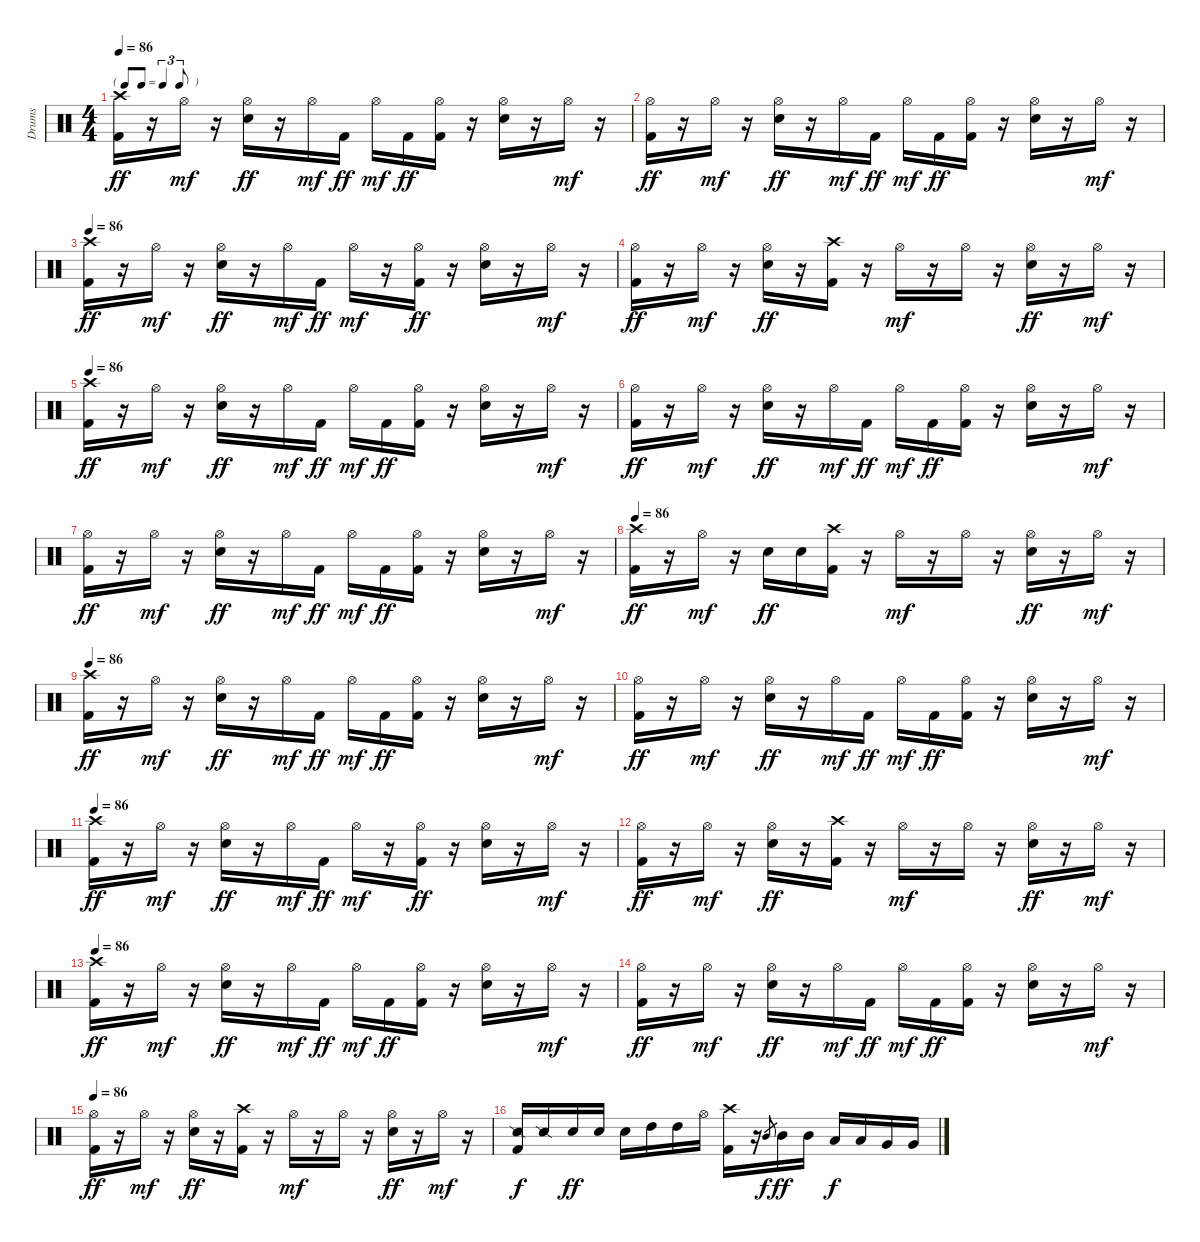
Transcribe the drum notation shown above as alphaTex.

\track ("Drums" "Drums") {instrument percussion}
\staff {score}
\articulation defaults
\ts (4 4)
\tf triplet8th
\tempo 86
\clef neutral
\ks c
("Crash high (hit)" "Kick (hit) 2").16{dy ff} r.16 "Hi-Hat (open)".16{dy mf} r.16 ("Hi-Hat (open)" "Electric Snare (hit)").16{dy ff} r.16 "Hi-Hat (open)".16{dy mf} "Kick (hit) 2".16{dy ff} "Hi-Hat (open)".16{dy mf} "Kick (hit) 2".16{dy ff} ("Hi-Hat (open)" "Kick (hit) 2").16 r.16 ("Hi-Hat (open)" "Electric Snare (hit)").16 r.16 "Hi-Hat (open)".16{dy mf} r.16 |
("Hi-Hat (open)" "Kick (hit) 2").16{dy ff} r.16 "Hi-Hat (open)".16{dy mf} r.16 ("Hi-Hat (open)" "Electric Snare (hit)").16{dy ff} r.16 "Hi-Hat (open)".16{dy mf} "Kick (hit) 2".16{dy ff} "Hi-Hat (open)".16{dy mf} "Kick (hit) 2".16{dy ff} ("Hi-Hat (open)" "Kick (hit) 2").16 r.16 ("Hi-Hat (open)" "Electric Snare (hit)").16 r.16 "Hi-Hat (open)".16{dy mf} r.16 |
\tempo 86
("Crash high (hit)" "Kick (hit) 2").16{dy ff} r.16 "Hi-Hat (open)".16{dy mf} r.16 ("Hi-Hat (open)" "Electric Snare (hit)").16{dy ff} r.16 "Hi-Hat (open)".16{dy mf} "Kick (hit) 2".16{dy ff} "Hi-Hat (open)".16{dy mf} r.16 ("Hi-Hat (open)" "Kick (hit) 2").16{dy ff} r.16 ("Hi-Hat (open)" "Electric Snare (hit)").16 r.16 "Hi-Hat (open)".16{dy mf} r.16 |
("Hi-Hat (open)" "Kick (hit) 2").16{dy ff} r.16 "Hi-Hat (open)".16{dy mf} r.16 ("Hi-Hat (open)" "Electric Snare (hit)").16{dy ff} r.16 ("Crash high (hit)" "Kick (hit) 2").16 r.16 "Hi-Hat (open)".16{dy mf} r.16 "Hi-Hat (open)".16 r.16 ("Hi-Hat (open)" "Electric Snare (hit)").16{dy ff} r.16 "Hi-Hat (open)".16{dy mf} r.16 |
\tempo 86
("Crash high (hit)" "Kick (hit) 2").16{dy ff} r.16 "Hi-Hat (open)".16{dy mf} r.16 ("Hi-Hat (open)" "Electric Snare (hit)").16{dy ff} r.16 "Hi-Hat (open)".16{dy mf} "Kick (hit) 2".16{dy ff} "Hi-Hat (open)".16{dy mf} "Kick (hit) 2".16{dy ff} ("Hi-Hat (open)" "Kick (hit) 2").16 r.16 ("Hi-Hat (open)" "Electric Snare (hit)").16 r.16 "Hi-Hat (open)".16{dy mf} r.16 |
("Hi-Hat (open)" "Kick (hit) 2").16{dy ff} r.16 "Hi-Hat (open)".16{dy mf} r.16 ("Hi-Hat (open)" "Electric Snare (hit)").16{dy ff} r.16 "Hi-Hat (open)".16{dy mf} "Kick (hit) 2".16{dy ff} "Hi-Hat (open)".16{dy mf} "Kick (hit) 2".16{dy ff} ("Hi-Hat (open)" "Kick (hit) 2").16 r.16 ("Hi-Hat (open)" "Electric Snare (hit)").16 r.16 "Hi-Hat (open)".16{dy mf} r.16 |
("Hi-Hat (open)" "Kick (hit) 2").16{dy ff} r.16 "Hi-Hat (open)".16{dy mf} r.16 ("Hi-Hat (open)" "Electric Snare (hit)").16{dy ff} r.16 "Hi-Hat (open)".16{dy mf} "Kick (hit) 2".16{dy ff} "Hi-Hat (open)".16{dy mf} "Kick (hit) 2".16{dy ff} ("Hi-Hat (open)" "Kick (hit) 2").16 r.16 ("Hi-Hat (open)" "Electric Snare (hit)").16 r.16 "Hi-Hat (open)".16{dy mf} r.16 |
\tempo 86
("Crash high (hit)" "Kick (hit) 2").16{dy ff} r.16 "Hi-Hat (open)".16{dy mf} r.16 "Electric Snare (hit)".16{dy ff} "Electric Snare (hit)".16 ("Crash high (hit)" "Kick (hit) 2").16 r.16 "Hi-Hat (open)".16{dy mf} r.16 "Hi-Hat (open)".16 r.16 ("Hi-Hat (open)" "Electric Snare (hit)").16{dy ff} r.16 "Hi-Hat (open)".16{dy mf} r.16 |
\tempo 86
("Crash high (hit)" "Kick (hit) 2").16{dy ff} r.16 "Hi-Hat (open)".16{dy mf} r.16 ("Hi-Hat (open)" "Electric Snare (hit)").16{dy ff} r.16 "Hi-Hat (open)".16{dy mf} "Kick (hit) 2".16{dy ff} "Hi-Hat (open)".16{dy mf} "Kick (hit) 2".16{dy ff} ("Hi-Hat (open)" "Kick (hit) 2").16 r.16 ("Hi-Hat (open)" "Electric Snare (hit)").16 r.16 "Hi-Hat (open)".16{dy mf} r.16 |
("Hi-Hat (open)" "Kick (hit) 2").16{dy ff} r.16 "Hi-Hat (open)".16{dy mf} r.16 ("Hi-Hat (open)" "Electric Snare (hit)").16{dy ff} r.16 "Hi-Hat (open)".16{dy mf} "Kick (hit) 2".16{dy ff} "Hi-Hat (open)".16{dy mf} "Kick (hit) 2".16{dy ff} ("Hi-Hat (open)" "Kick (hit) 2").16 r.16 ("Hi-Hat (open)" "Electric Snare (hit)").16 r.16 "Hi-Hat (open)".16{dy mf} r.16 |
\tempo 86
("Crash high (hit)" "Kick (hit) 2").16{dy ff} r.16 "Hi-Hat (open)".16{dy mf} r.16 ("Hi-Hat (open)" "Electric Snare (hit)").16{dy ff} r.16 "Hi-Hat (open)".16{dy mf} "Kick (hit) 2".16{dy ff} "Hi-Hat (open)".16{dy mf} r.16 ("Hi-Hat (open)" "Kick (hit) 2").16{dy ff} r.16 ("Hi-Hat (open)" "Electric Snare (hit)").16 r.16 "Hi-Hat (open)".16{dy mf} r.16 |
("Hi-Hat (open)" "Kick (hit) 2").16{dy ff} r.16 "Hi-Hat (open)".16{dy mf} r.16 ("Hi-Hat (open)" "Electric Snare (hit)").16{dy ff} r.16 ("Crash high (hit)" "Kick (hit) 2").16 r.16 "Hi-Hat (open)".16{dy mf} r.16 "Hi-Hat (open)".16 r.16 ("Hi-Hat (open)" "Electric Snare (hit)").16{dy ff} r.16 "Hi-Hat (open)".16{dy mf} r.16 |
\tempo 86
("Crash high (hit)" "Kick (hit) 2").16{dy ff} r.16 "Hi-Hat (open)".16{dy mf} r.16 ("Hi-Hat (open)" "Electric Snare (hit)").16{dy ff} r.16 "Hi-Hat (open)".16{dy mf} "Kick (hit) 2".16{dy ff} "Hi-Hat (open)".16{dy mf} "Kick (hit) 2".16{dy ff} ("Hi-Hat (open)" "Kick (hit) 2").16 r.16 ("Hi-Hat (open)" "Electric Snare (hit)").16 r.16 "Hi-Hat (open)".16{dy mf} r.16 |
("Hi-Hat (open)" "Kick (hit) 2").16{dy ff} r.16 "Hi-Hat (open)".16{dy mf} r.16 ("Hi-Hat (open)" "Electric Snare (hit)").16{dy ff} r.16 "Hi-Hat (open)".16{dy mf} "Kick (hit) 2".16{dy ff} "Hi-Hat (open)".16{dy mf} "Kick (hit) 2".16{dy ff} ("Hi-Hat (open)" "Kick (hit) 2").16 r.16 ("Hi-Hat (open)" "Electric Snare (hit)").16 r.16 "Hi-Hat (open)".16{dy mf} r.16 |
\tempo 86
("Hi-Hat (open)" "Kick (hit) 2").16{dy ff} r.16 "Hi-Hat (open)".16{dy mf} r.16 ("Hi-Hat (open)" "Electric Snare (hit)").16{dy ff} r.16 ("Crash high (hit)" "Kick (hit) 2").16 r.16 "Hi-Hat (open)".16{dy mf} r.16 "Hi-Hat (open)".16 r.16 ("Hi-Hat (open)" "Electric Snare (hit)").16{dy ff} r.16 "Hi-Hat (open)".16{dy mf} r.16 |
("Snare (side stick) 2" "Kick (hit) 2").16{dy f} "Snare (side stick) 2".16 "Electric Snare (hit)".16{dy ff} "Electric Snare (hit)".16 "Electric Snare (hit)".16 "High Tom (hit)".16 "High Tom (hit)".16 "Hi-Hat (open)".16 ("Crash high (hit)" "Kick (hit) 2").16 r.16 "Mid Tom (hit)".8{gr dy f} "Mid Tom (hit)".16{dy ff} "Mid Tom (hit)".16 "Low Tom (hit)".16{dy f} "Low Tom (hit)".16 "Very Low Tom (hit)".16 "Very Low Tom (hit)".16
